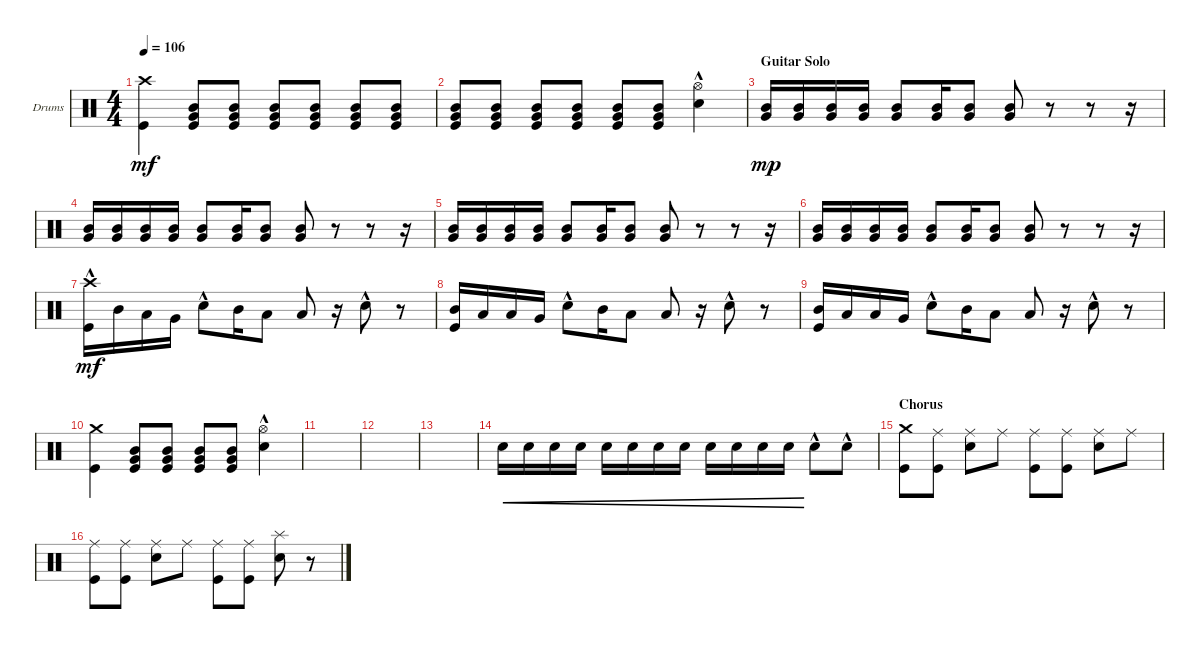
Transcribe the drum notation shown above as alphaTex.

\defaultSystemsLayout 4
\bracketExtendMode groupsimilarinstruments
\firstSystemTrackNameOrientation horizontal
\otherSystemsTrackNameOrientation horizontal
\track ("Drumkit" "Drums") {mute instrument percussion}
\staff {score}
\articulation defaults
\ts (4 4)
\tempo 106
\clef neutral
\scale
0.333333
\ks c
("Kick (hit)" "Crash high (hit)").4{dy mf} ("Kick (hit)" "Very Low Tom (hit)" "Mid Tom (hit)").8 ("Kick (hit)" "Very Low Tom (hit)" "Mid Tom (hit)").8 ("Kick (hit)" "Very Low Tom (hit)" "Mid Tom (hit)").8 ("Kick (hit)" "Very Low Tom (hit)" "Mid Tom (hit)").8 ("Kick (hit)" "Very Low Tom (hit)" "Mid Tom (hit)").8 ("Kick (hit)" "Very Low Tom (hit)" "Mid Tom (hit)").8 |
\scale
0.333333 ("Kick (hit)" "Very Low Tom (hit)" "Mid Tom (hit)").8 ("Kick (hit)" "Very Low Tom (hit)" "Mid Tom (hit)").8 ("Kick (hit)" "Very Low Tom (hit)" "Mid Tom (hit)").8 ("Kick (hit)" "Very Low Tom (hit)" "Mid Tom (hit)").8 ("Kick (hit)" "Very Low Tom (hit)" "Mid Tom (hit)").8 ("Kick (hit)" "Very Low Tom (hit)" "Mid Tom (hit)").8 ("Snare (hit) 2"{hac} "Hi-Hat (open)"{hac}).4 |
\section ("" "Guitar Solo")
\scale
0.333333 ("Very Low Tom (hit)" "Mid Tom (hit)").16{dy mp} ("Mid Tom (hit)" "Very Low Tom (hit)").16 ("Mid Tom (hit)" "Very Low Tom (hit)").16 ("Mid Tom (hit)" "Very Low Tom (hit)").16 ("Mid Tom (hit)" "Very Low Tom (hit)").8 ("Mid Tom (hit)" "Very Low Tom (hit)").16 ("Mid Tom (hit)" "Very Low Tom (hit)").8 ("Mid Tom (hit)" "Very Low Tom (hit)").8 r.8 r.8 r.16 |
\scale
0.333333 ("Very Low Tom (hit)" "Mid Tom (hit)").16 ("Mid Tom (hit)" "Very Low Tom (hit)").16 ("Mid Tom (hit)" "Very Low Tom (hit)").16 ("Mid Tom (hit)" "Very Low Tom (hit)").16 ("Mid Tom (hit)" "Very Low Tom (hit)").8 ("Mid Tom (hit)" "Very Low Tom (hit)").16 ("Mid Tom (hit)" "Very Low Tom (hit)").8 ("Mid Tom (hit)" "Very Low Tom (hit)").8 r.8 r.8 r.16 |
("Mid Tom (hit)" "Very Low Tom (hit)").16 ("Mid Tom (hit)" "Very Low Tom (hit)").16 ("Mid Tom (hit)" "Very Low Tom (hit)").16 ("Mid Tom (hit)" "Very Low Tom (hit)").16 ("Mid Tom (hit)" "Very Low Tom (hit)").8 ("Mid Tom (hit)" "Very Low Tom (hit)").16 ("Mid Tom (hit)" "Very Low Tom (hit)").8 ("Mid Tom (hit)" "Very Low Tom (hit)").8 r.8 r.8 r.16 |
("Mid Tom (hit)" "Very Low Tom (hit)").16 ("Mid Tom (hit)" "Very Low Tom (hit)").16 ("Mid Tom (hit)" "Very Low Tom (hit)").16 ("Mid Tom (hit)" "Very Low Tom (hit)").16 ("Mid Tom (hit)" "Very Low Tom (hit)").8 ("Mid Tom (hit)" "Very Low Tom (hit)").16 ("Mid Tom (hit)" "Very Low Tom (hit)").8 ("Mid Tom (hit)" "Very Low Tom (hit)").8 r.8 r.8 r.16 |
("Kick (hit)"{hac} "Crash high (hit)").16{dy mf} "Mid Tom (hit)".16 "Low Tom (hit)".16 "Very Low Tom (hit)".16 "Snare (hit) 2"{hac}.8 "Mid Tom (hit)".16 "Low Tom (hit)".8 "Low Tom (hit)".8 r.16 "Snare (hit) 2"{hac}.8 r.8 |
("Kick (hit)" "Mid Tom (hit)").16 "Low Tom (hit)".16 "Low Tom (hit)".16 "Very Low Tom (hit)".16 "Snare (hit) 2"{hac}.8 "Mid Tom (hit)".16 "Low Tom (hit)".8 "Low Tom (hit)".8 r.16 "Snare (hit) 2"{hac}.8 r.8 |
("Kick (hit)" "Mid Tom (hit)").16 "Low Tom (hit)".16 "Low Tom (hit)".16 "Very Low Tom (hit)".16 "Snare (hit) 2"{hac}.8 "Mid Tom (hit)".16 "Low Tom (hit)".8 "Low Tom (hit)".8 r.16 "Snare (hit) 2"{hac}.8 r.8 |
("Kick (hit)" "Crash medium (hit)").4 ("Kick (hit)" "Very Low Tom (hit)" "Mid Tom (hit)").8 ("Kick (hit)" "Very Low Tom (hit)" "Mid Tom (hit)").8 ("Kick (hit)" "Very Low Tom (hit)" "Mid Tom (hit)").8 ("Kick (hit)" "Very Low Tom (hit)" "Mid Tom (hit)").8 ("Snare (hit) 2"{hac} "Hi-Hat (open)"{hac}).4 |
|
|
|
"Snare (hit) 2".16{cre} "Snare (hit) 2".16{cre} "Snare (hit) 2".16{cre} "Snare (hit) 2".16{cre} "Snare (hit) 2".16{cre} "Snare (hit) 2".16{cre} "Snare (hit) 2".16{cre} "Snare (hit) 2".16{cre} "Snare (hit) 2".16{cre} "Snare (hit) 2".16{cre} "Snare (hit) 2".16{cre} "Snare (hit) 2".16{cre} "Snare (hit) 2"{hac}.8 "Snare (hit) 2"{hac}.8 |
\section ("" "Chorus")
("Kick (hit)" "Crash medium (hit)").8 ("Kick (hit)" "Ride (middle)").8 ("Snare (hit) 2" "Ride (middle)").8 "Ride (middle)".8 ("Kick (hit)" "Ride (middle)").8 ("Kick (hit)" "Ride (middle)").8 ("Snare (hit) 2" "Ride (middle)").8 "Ride (middle)".8 |
("Kick (hit)" "Ride (middle)").8 ("Kick (hit)" "Ride (middle)").8 ("Snare (hit) 2" "Ride (middle)").8 "Ride (middle)".8 ("Kick (hit)" "Ride (middle)").8 ("Kick (hit)" "Ride (middle)").8 ("Snare (hit) 2" "Splash (hit)").8 r.8
